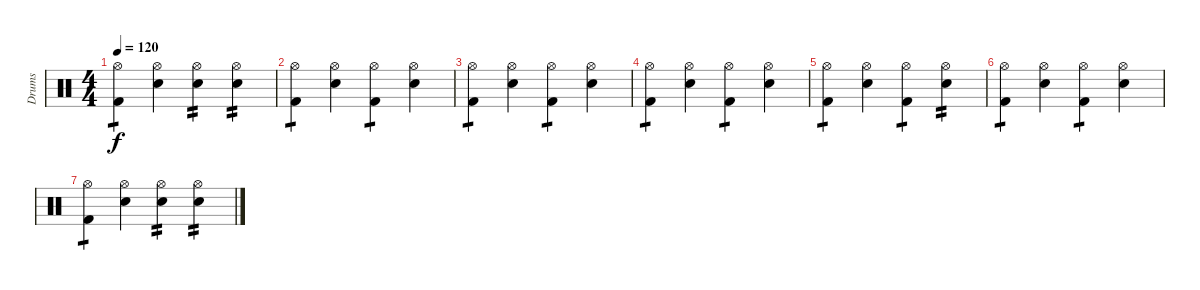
\track ("Drums" "Drums") {instrument percussion}
\staff {score}
\articulation defaults
\ts (4 4)
\tempo 120
\clef neutral
\ks c
("Hi-Hat (open)" "Kick (hit) 2").4{tp 1 dy f} ("Hi-Hat (open)" "Electric Snare (hit)").4 ("Hi-Hat (open)" "Electric Snare (hit)").4{tp 2} ("Hi-Hat (open)" "Electric Snare (hit)").4{tp 2} |
("Hi-Hat (open)" "Kick (hit) 2").4{tp 1} ("Hi-Hat (open)" "Electric Snare (hit)").4 ("Hi-Hat (open)" "Kick (hit) 2").4{tp 1} ("Hi-Hat (open)" "Electric Snare (hit)").4 |
("Hi-Hat (open)" "Kick (hit) 2").4{tp 1} ("Hi-Hat (open)" "Electric Snare (hit)").4 ("Hi-Hat (open)" "Kick (hit) 2").4{tp 1} ("Hi-Hat (open)" "Electric Snare (hit)").4 |
("Hi-Hat (open)" "Kick (hit) 2").4{tp 1} ("Hi-Hat (open)" "Electric Snare (hit)").4 ("Hi-Hat (open)" "Kick (hit) 2").4{tp 1} ("Hi-Hat (open)" "Electric Snare (hit)").4 |
("Hi-Hat (open)" "Kick (hit) 2").4{tp 1} ("Hi-Hat (open)" "Electric Snare (hit)").4 ("Hi-Hat (open)" "Kick (hit) 2").4{tp 1} ("Hi-Hat (open)" "Electric Snare (hit)").4{tp 2} |
("Hi-Hat (open)" "Kick (hit) 2").4{tp 1} ("Hi-Hat (open)" "Electric Snare (hit)").4 ("Hi-Hat (open)" "Kick (hit) 2").4{tp 1} ("Hi-Hat (open)" "Electric Snare (hit)").4 |
("Hi-Hat (open)" "Kick (hit) 2").4{tp 1} ("Hi-Hat (open)" "Electric Snare (hit)").4 ("Hi-Hat (open)" "Electric Snare (hit)").4{tp 2} ("Hi-Hat (open)" "Electric Snare (hit)").4{tp 2}
